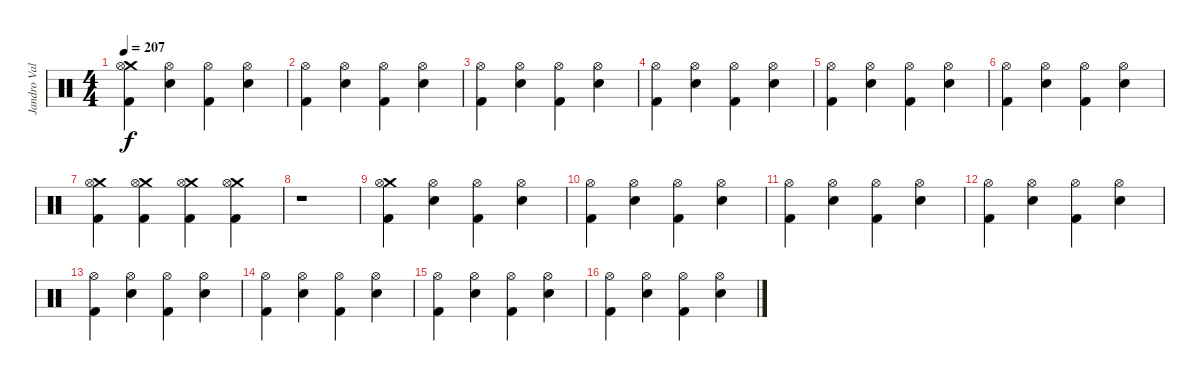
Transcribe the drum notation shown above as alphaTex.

\track ("Jandro Valázquez" "Jandro Val") {instrument percussion}
\staff {score}
\articulation defaults
\ts (4 4)
\tempo 207
\clef neutral
\ks c
("Crash medium (hit)" "Hi-Hat (open)" "Kick (hit) 2").4{dy f} ("Hi-Hat (open)" "Snare (hit) 2").4 ("Hi-Hat (open)" "Kick (hit) 2").4 ("Hi-Hat (open)" "Snare (hit) 2").4 |
("Hi-Hat (open)" "Kick (hit) 2").4 ("Hi-Hat (open)" "Snare (hit) 2").4 ("Hi-Hat (open)" "Kick (hit) 2").4 ("Hi-Hat (open)" "Snare (hit) 2").4 |
("Hi-Hat (open)" "Kick (hit) 2").4 ("Hi-Hat (open)" "Snare (hit) 2").4 ("Hi-Hat (open)" "Kick (hit) 2").4 ("Hi-Hat (open)" "Snare (hit) 2").4 |
("Hi-Hat (open)" "Kick (hit) 2").4 ("Hi-Hat (open)" "Snare (hit) 2").4 ("Hi-Hat (open)" "Kick (hit) 2").4 ("Hi-Hat (open)" "Snare (hit) 2").4 |
("Hi-Hat (open)" "Kick (hit) 2").4 ("Hi-Hat (open)" "Snare (hit) 2").4 ("Hi-Hat (open)" "Kick (hit) 2").4 ("Hi-Hat (open)" "Snare (hit) 2").4 |
("Hi-Hat (open)" "Kick (hit) 2").4 ("Hi-Hat (open)" "Snare (hit) 2").4 ("Hi-Hat (open)" "Kick (hit) 2").4 ("Hi-Hat (open)" "Snare (hit) 2").4 |
("Crash medium (hit)" "Hi-Hat (open)" "Kick (hit) 2").4 ("Crash medium (hit)" "Hi-Hat (open)" "Kick (hit) 2").4 ("Crash medium (hit)" "Hi-Hat (open)" "Kick (hit) 2").4 ("Crash medium (hit)" "Hi-Hat (open)" "Kick (hit) 2").4 |
r.1 |
("Crash medium (hit)" "Hi-Hat (open)" "Kick (hit) 2").4 ("Hi-Hat (open)" "Snare (hit) 2").4 ("Hi-Hat (open)" "Kick (hit) 2").4 ("Hi-Hat (open)" "Snare (hit) 2").4 |
("Hi-Hat (open)" "Kick (hit) 2").4 ("Hi-Hat (open)" "Snare (hit) 2").4 ("Hi-Hat (open)" "Kick (hit) 2").4 ("Hi-Hat (open)" "Snare (hit) 2").4 |
("Hi-Hat (open)" "Kick (hit) 2").4 ("Hi-Hat (open)" "Snare (hit) 2").4 ("Hi-Hat (open)" "Kick (hit) 2").4 ("Hi-Hat (open)" "Snare (hit) 2").4 |
("Hi-Hat (open)" "Kick (hit) 2").4 ("Hi-Hat (open)" "Snare (hit) 2").4 ("Hi-Hat (open)" "Kick (hit) 2").4 ("Hi-Hat (open)" "Snare (hit) 2").4 |
("Hi-Hat (open)" "Kick (hit) 2").4 ("Hi-Hat (open)" "Snare (hit) 2").4 ("Hi-Hat (open)" "Kick (hit) 2").4 ("Hi-Hat (open)" "Snare (hit) 2").4 |
("Hi-Hat (open)" "Kick (hit) 2").4 ("Hi-Hat (open)" "Snare (hit) 2").4 ("Hi-Hat (open)" "Kick (hit) 2").4 ("Hi-Hat (open)" "Snare (hit) 2").4 |
("Hi-Hat (open)" "Kick (hit) 2").4 ("Hi-Hat (open)" "Snare (hit) 2").4 ("Hi-Hat (open)" "Kick (hit) 2").4 ("Hi-Hat (open)" "Snare (hit) 2").4 |
("Hi-Hat (open)" "Kick (hit) 2").4 ("Hi-Hat (open)" "Snare (hit) 2").4 ("Hi-Hat (open)" "Kick (hit) 2").4 ("Hi-Hat (open)" "Snare (hit) 2").4
